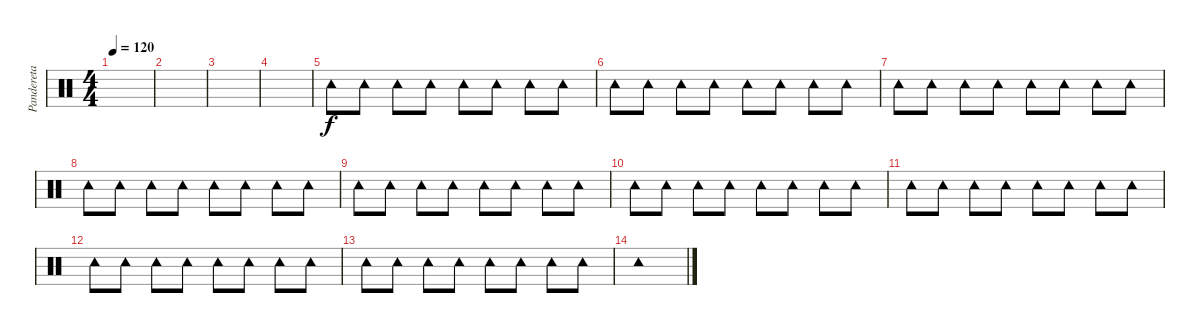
\track ("Pandereta" "Pandereta") {instrument percussion}
\staff {score}
\articulation defaults
\ts (4 4)
\tempo 120
\clef neutral
\ks c
|
|
|
|
"Tambourine (hit)".8 "Tambourine (hit)".8 "Tambourine (hit)".8 "Tambourine (hit)".8 "Tambourine (hit)".8 "Tambourine (hit)".8 "Tambourine (hit)".8 "Tambourine (hit)".8 |
"Tambourine (hit)".8 "Tambourine (hit)".8 "Tambourine (hit)".8 "Tambourine (hit)".8 "Tambourine (hit)".8 "Tambourine (hit)".8 "Tambourine (hit)".8 "Tambourine (hit)".8 |
"Tambourine (hit)".8 "Tambourine (hit)".8 "Tambourine (hit)".8 "Tambourine (hit)".8 "Tambourine (hit)".8 "Tambourine (hit)".8 "Tambourine (hit)".8 "Tambourine (hit)".8 |
"Tambourine (hit)".8 "Tambourine (hit)".8 "Tambourine (hit)".8 "Tambourine (hit)".8 "Tambourine (hit)".8 "Tambourine (hit)".8 "Tambourine (hit)".8 "Tambourine (hit)".8 |
"Tambourine (hit)".8 "Tambourine (hit)".8 "Tambourine (hit)".8 "Tambourine (hit)".8 "Tambourine (hit)".8 "Tambourine (hit)".8 "Tambourine (hit)".8 "Tambourine (hit)".8 |
"Tambourine (hit)".8 "Tambourine (hit)".8 "Tambourine (hit)".8 "Tambourine (hit)".8 "Tambourine (hit)".8 "Tambourine (hit)".8 "Tambourine (hit)".8 "Tambourine (hit)".8 |
"Tambourine (hit)".8 "Tambourine (hit)".8 "Tambourine (hit)".8 "Tambourine (hit)".8 "Tambourine (hit)".8 "Tambourine (hit)".8 "Tambourine (hit)".8 "Tambourine (hit)".8 |
"Tambourine (hit)".8 "Tambourine (hit)".8 "Tambourine (hit)".8 "Tambourine (hit)".8 "Tambourine (hit)".8 "Tambourine (hit)".8 "Tambourine (hit)".8 "Tambourine (hit)".8 |
"Tambourine (hit)".8 "Tambourine (hit)".8 "Tambourine (hit)".8 "Tambourine (hit)".8 "Tambourine (hit)".8 "Tambourine (hit)".8 "Tambourine (hit)".8 "Tambourine (hit)".8 |
"Tambourine (hit)".1
